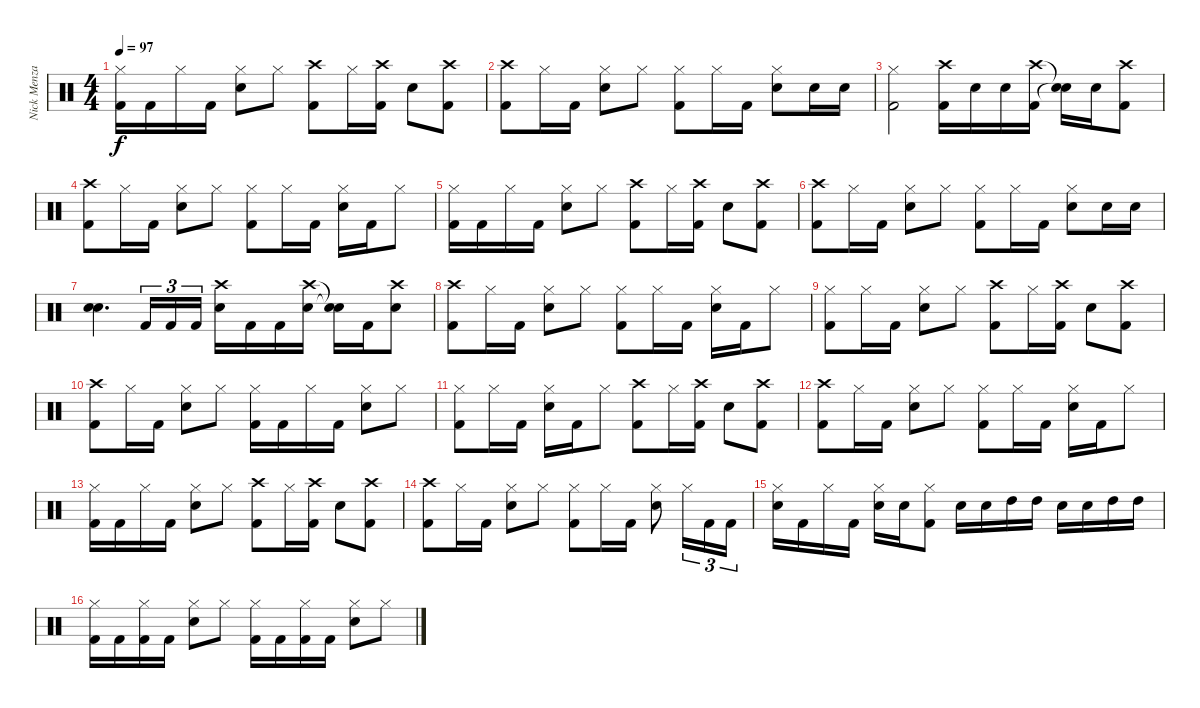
\track ("Nick Menza" "Nick Menza") {instrument percussion}
\staff {score}
\articulation defaults
\ts (4 4)
\tempo 97
\clef neutral
\ks c
("Hi-Hat (closed)" "Kick (hit) 2").16{dy f} "Kick (hit) 2".16 "Hi-Hat (closed)".16 "Kick (hit) 2".16 ("Hi-Hat (closed)" "Electric Snare (hit)").8 "Hi-Hat (closed)".8 ("Crash high (hit)" "Kick (hit) 2").8 "Hi-Hat (closed)".16 ("Crash high (hit)" "Kick (hit) 2").16 "Electric Snare (hit)".8 ("Crash high (hit)" "Kick (hit) 2").8 |
("Crash high (hit)" "Kick (hit) 2").8 "Hi-Hat (closed)".16 "Kick (hit) 2".16 ("Hi-Hat (closed)" "Electric Snare (hit)").8 "Hi-Hat (closed)".8 ("Hi-Hat (closed)" "Kick (hit) 2").8 "Hi-Hat (closed)".16 "Kick (hit) 2".16 ("Hi-Hat (closed)" "Electric Snare (hit)").8 "Electric Snare (hit)".16 "Electric Snare (hit)".16 |
("Hi-Hat (closed)" "Kick (hit) 2").2 ("Crash high (hit)" "Kick (hit) 2").16 "Electric Snare (hit)".16 "Electric Snare (hit)".16 ("Crash high (hit)" "Kick (hit) 2").16 ("Snare (hit)"{t} "Snare (hit)"{t}).16 "Electric Snare (hit)".16 ("Crash high (hit)" "Kick (hit) 2").8 |
("Crash high (hit)" "Kick (hit) 2").8 "Hi-Hat (closed)".16 "Kick (hit) 2".16 ("Hi-Hat (closed)" "Electric Snare (hit)").8 "Hi-Hat (closed)".8 ("Hi-Hat (closed)" "Kick (hit) 2").8 "Hi-Hat (closed)".16 "Kick (hit) 2".16 ("Hi-Hat (closed)" "Electric Snare (hit)").16 "Kick (hit) 2".16 "Hi-Hat (closed)".8 |
("Hi-Hat (closed)" "Kick (hit) 2").16 "Kick (hit) 2".16 "Hi-Hat (closed)".16 "Kick (hit) 2".16 ("Hi-Hat (closed)" "Electric Snare (hit)").8 "Hi-Hat (closed)".8 ("Crash high (hit)" "Kick (hit) 2").8 "Hi-Hat (closed)".16 ("Crash high (hit)" "Kick (hit) 2").16 "Electric Snare (hit)".8 ("Crash high (hit)" "Kick (hit) 2").8 |
("Crash high (hit)" "Kick (hit) 2").8 "Hi-Hat (closed)".16 "Kick (hit) 2".16 ("Hi-Hat (closed)" "Electric Snare (hit)").8 "Hi-Hat (closed)".8 ("Hi-Hat (closed)" "Kick (hit) 2").8 "Hi-Hat (closed)".16 "Kick (hit) 2".16 ("Hi-Hat (closed)" "Electric Snare (hit)").8 "Electric Snare (hit)".16 "Electric Snare (hit)".16 |
("Electric Snare (hit)" "Electric Snare (hit)").4{d} "Kick (hit) 2".16{tu (3 2)} "Kick (hit) 2".16{tu (3 2)} "Kick (hit) 2".16{tu (3 2)} ("Crash high (hit)" "Electric Snare (hit)").16 "Kick (hit) 2".16 "Kick (hit) 2".16 ("Crash high (hit)" "Electric Snare (hit)").16 ("Snare (hit)"{t} "Snare (hit)"{t}).16 "Kick (hit) 2".16 ("Crash high (hit)" "Electric Snare (hit)").8 |
("Crash high (hit)" "Kick (hit) 2").8 "Hi-Hat (closed)".16 "Kick (hit) 2".16 ("Hi-Hat (closed)" "Electric Snare (hit)").8 "Hi-Hat (closed)".8 ("Hi-Hat (closed)" "Kick (hit) 2").8 "Hi-Hat (closed)".16 "Kick (hit) 2".16 ("Hi-Hat (closed)" "Electric Snare (hit)").16 "Kick (hit) 2".16 "Hi-Hat (closed)".8 |
("Hi-Hat (closed)" "Kick (hit) 2").8 "Hi-Hat (closed)".16 "Kick (hit) 2".16 ("Hi-Hat (closed)" "Electric Snare (hit)").8 "Hi-Hat (closed)".8 ("Crash high (hit)" "Kick (hit) 2").8 "Hi-Hat (closed)".16 ("Crash high (hit)" "Kick (hit) 2").16 "Electric Snare (hit)".8 ("Crash high (hit)" "Kick (hit) 2").8 |
("Crash high (hit)" "Kick (hit) 2").8 "Hi-Hat (closed)".16 "Kick (hit) 2".16 ("Hi-Hat (closed)" "Electric Snare (hit)").8 "Hi-Hat (closed)".8 ("Hi-Hat (closed)" "Kick (hit) 2").16 "Kick (hit) 2".16 "Hi-Hat (closed)".16 "Kick (hit) 2".16 ("Hi-Hat (closed)" "Electric Snare (hit)").8 "Hi-Hat (closed)".8 |
("Hi-Hat (closed)" "Kick (hit) 2").8 "Hi-Hat (closed)".16 "Kick (hit) 2".16 ("Hi-Hat (closed)" "Electric Snare (hit)").16 "Kick (hit) 2".16 "Hi-Hat (closed)".8 ("Crash high (hit)" "Kick (hit) 2").8 "Hi-Hat (closed)".16 ("Crash high (hit)" "Kick (hit) 2").16 "Electric Snare (hit)".8 ("Crash high (hit)" "Kick (hit) 2").8 |
("Crash high (hit)" "Kick (hit) 2").8 "Hi-Hat (closed)".16 "Kick (hit) 2".16 ("Hi-Hat (closed)" "Electric Snare (hit)").8 "Hi-Hat (closed)".8 ("Hi-Hat (closed)" "Kick (hit) 2").8 "Hi-Hat (closed)".16 "Kick (hit) 2".16 ("Hi-Hat (closed)" "Electric Snare (hit)").16 "Kick (hit) 2".16 "Hi-Hat (closed)".8 |
("Hi-Hat (closed)" "Kick (hit) 2").16 "Kick (hit) 2".16 "Hi-Hat (closed)".16 "Kick (hit) 2".16 ("Hi-Hat (closed)" "Electric Snare (hit)").8 "Hi-Hat (closed)".8 ("Crash high (hit)" "Kick (hit) 2").8 "Hi-Hat (closed)".16 ("Crash high (hit)" "Kick (hit) 2").16 "Electric Snare (hit)".8 ("Crash high (hit)" "Kick (hit) 2").8 |
("Crash high (hit)" "Kick (hit) 2").8 "Hi-Hat (closed)".16 "Kick (hit) 2".16 ("Hi-Hat (closed)" "Electric Snare (hit)").8 "Hi-Hat (closed)".8 ("Hi-Hat (closed)" "Kick (hit) 2").8 "Hi-Hat (closed)".16 "Kick (hit) 2".16 ("Hi-Hat (closed)" "Electric Snare (hit)").8 "Hi-Hat (closed)".16{tu (3 2)} "Kick (hit) 2".16{tu (3 2)} "Kick (hit) 2".16{tu (3 2)} |
("Hi-Hat (closed)" "Electric Snare (hit)").16 "Kick (hit) 2".16 "Hi-Hat (closed)".16 "Kick (hit) 2".16 ("Hi-Hat (closed)" "Electric Snare (hit)").16 "Electric Snare (hit)".16 ("Hi-Hat (closed)" "Kick (hit) 2").8 "Electric Snare (hit)".16 "Electric Snare (hit)".16 "High Tom (hit)".16 "High Tom (hit)".16 "Electric Snare (hit)".16 "Electric Snare (hit)".16 "High Tom (hit)".16 "High Tom (hit)".16 |
("Hi-Hat (closed)" "Kick (hit) 2").16 "Kick (hit) 2".16 ("Hi-Hat (closed)" "Kick (hit) 2").16 "Kick (hit) 2".16 ("Hi-Hat (closed)" "Electric Snare (hit)").8 "Hi-Hat (closed)".8 ("Hi-Hat (closed)" "Kick (hit) 2").16 "Kick (hit) 2".16 ("Hi-Hat (closed)" "Kick (hit) 2").16 "Kick (hit) 2".16 ("Hi-Hat (closed)" "Electric Snare (hit)").8 "Hi-Hat (closed)".8
